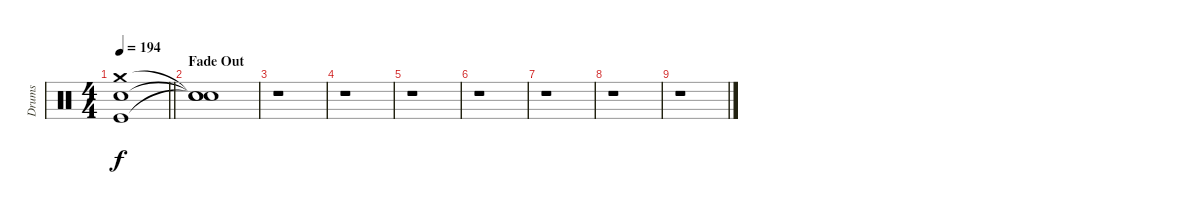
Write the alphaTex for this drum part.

\track ("Drums" "Drums") {instrument percussion}
\staff {score}
\articulation defaults
\ts (4 4)
\tempo 194
\clef neutral
\barLineRight lightlight
\ks c
("Kick (hit)" "Snare (hit) 2" "Crash medium (hit)").1{dy f} |
\section ("" "Fade Out")
("Snare (hit)"{t} "Snare (hit)"{t} "Snare (hit)"{t}).1 |
r.1 |
r.1 |
r.1 |
r.1 |
r.1 |
r.1 |
r.1
